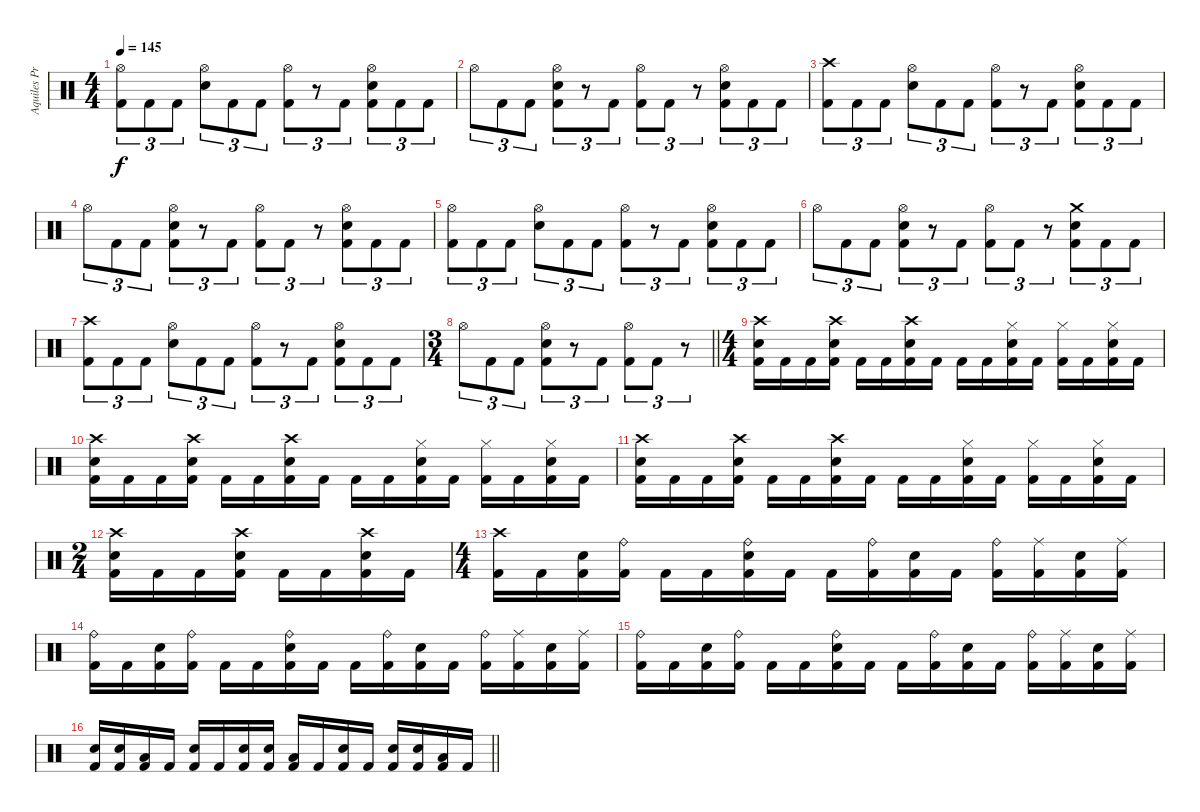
\track ("Aquiles Priester" "Aquiles Pr") {instrument percussion}
\staff {score}
\articulation defaults
\ts (4 4)
\tempo 145
\clef neutral
\ks c
("Hi-Hat (open)" "Kick (hit) 2").8{tu (3 2) dy f} "Kick (hit) 2".8{tu (3 2)} "Kick (hit) 2".8{tu (3 2)} ("Hi-Hat (open)" "Electric Snare (hit)").8{tu (3 2)} "Kick (hit) 2".8{tu (3 2)} "Kick (hit) 2".8{tu (3 2)} ("Hi-Hat (open)" "Kick (hit) 2").8{tu (3 2)} r.8{tu (3 2)} "Kick (hit) 2".8{tu (3 2)} ("Hi-Hat (open)" "Electric Snare (hit)" "Kick (hit) 2").8{tu (3 2)} "Kick (hit) 2".8{tu (3 2)} "Kick (hit) 2".8{tu (3 2)} |
"Hi-Hat (open)".8{tu (3 2)} "Kick (hit) 2".8{tu (3 2)} "Kick (hit) 2".8{tu (3 2)} ("Hi-Hat (open)" "Electric Snare (hit)" "Kick (hit) 2").8{tu (3 2)} r.8{tu (3 2)} "Kick (hit) 2".8{tu (3 2)} ("Hi-Hat (open)" "Kick (hit) 2").8{tu (3 2)} "Kick (hit) 2".8{tu (3 2)} r.8{tu (3 2)} ("Hi-Hat (open)" "Electric Snare (hit)" "Kick (hit) 2").8{tu (3 2)} "Kick (hit) 2".8{tu (3 2)} "Kick (hit) 2".8{tu (3 2)} |
("Crash high (hit)" "Kick (hit) 2").8{tu (3 2)} "Kick (hit) 2".8{tu (3 2)} "Kick (hit) 2".8{tu (3 2)} ("Hi-Hat (open)" "Electric Snare (hit)").8{tu (3 2)} "Kick (hit) 2".8{tu (3 2)} "Kick (hit) 2".8{tu (3 2)} ("Hi-Hat (open)" "Kick (hit) 2").8{tu (3 2)} r.8{tu (3 2)} "Kick (hit) 2".8{tu (3 2)} ("Hi-Hat (open)" "Electric Snare (hit)" "Kick (hit) 2").8{tu (3 2)} "Kick (hit) 2".8{tu (3 2)} "Kick (hit) 2".8{tu (3 2)} |
"Hi-Hat (open)".8{tu (3 2)} "Kick (hit) 2".8{tu (3 2)} "Kick (hit) 2".8{tu (3 2)} ("Hi-Hat (open)" "Electric Snare (hit)" "Kick (hit) 2").8{tu (3 2)} r.8{tu (3 2)} "Kick (hit) 2".8{tu (3 2)} ("Hi-Hat (open)" "Kick (hit) 2").8{tu (3 2)} "Kick (hit) 2".8{tu (3 2)} r.8{tu (3 2)} ("Hi-Hat (open)" "Electric Snare (hit)" "Kick (hit) 2").8{tu (3 2)} "Kick (hit) 2".8{tu (3 2)} "Kick (hit) 2".8{tu (3 2)} |
("Hi-Hat (open)" "Kick (hit) 2").8{tu (3 2)} "Kick (hit) 2".8{tu (3 2)} "Kick (hit) 2".8{tu (3 2)} ("Hi-Hat (open)" "Electric Snare (hit)").8{tu (3 2)} "Kick (hit) 2".8{tu (3 2)} "Kick (hit) 2".8{tu (3 2)} ("Hi-Hat (open)" "Kick (hit) 2").8{tu (3 2)} r.8{tu (3 2)} "Kick (hit) 2".8{tu (3 2)} ("Hi-Hat (open)" "Electric Snare (hit)" "Kick (hit) 2").8{tu (3 2)} "Kick (hit) 2".8{tu (3 2)} "Kick (hit) 2".8{tu (3 2)} |
"Hi-Hat (open)".8{tu (3 2)} "Kick (hit) 2".8{tu (3 2)} "Kick (hit) 2".8{tu (3 2)} ("Hi-Hat (open)" "Electric Snare (hit)" "Kick (hit) 2").8{tu (3 2)} r.8{tu (3 2)} "Kick (hit) 2".8{tu (3 2)} ("Hi-Hat (open)" "Kick (hit) 2").8{tu (3 2)} "Kick (hit) 2".8{tu (3 2)} r.8{tu (3 2)} ("Crash medium (hit)" "Electric Snare (hit)" "Kick (hit) 2").8{tu (3 2)} "Kick (hit) 2".8{tu (3 2)} "Kick (hit) 2".8{tu (3 2)} |
("Crash high (hit)" "Kick (hit) 2").8{tu (3 2)} "Kick (hit) 2".8{tu (3 2)} "Kick (hit) 2".8{tu (3 2)} ("Hi-Hat (open)" "Electric Snare (hit)").8{tu (3 2)} "Kick (hit) 2".8{tu (3 2)} "Kick (hit) 2".8{tu (3 2)} ("Hi-Hat (open)" "Kick (hit) 2").8{tu (3 2)} r.8{tu (3 2)} "Kick (hit) 2".8{tu (3 2)} ("Hi-Hat (open)" "Electric Snare (hit)" "Kick (hit) 2").8{tu (3 2)} "Kick (hit) 2".8{tu (3 2)} "Kick (hit) 2".8{tu (3 2)} |
\ts (3 4)
\barLineRight lightlight "Hi-Hat (open)".8{tu (3 2)} "Kick (hit) 2".8{tu (3 2)} "Kick (hit) 2".8{tu (3 2)}
("Hi-Hat (open)" "Electric Snare (hit)" "Kick (hit) 2").8{tu (3 2)} r.8{tu (3 2)} "Kick (hit) 2".8{tu (3 2)} ("Hi-Hat (open)" "Kick (hit) 2").8{tu (3 2)} "Kick (hit) 2".8{tu (3 2)} r.8{tu (3 2)} |
\ts (4 4)
("Crash high (hit)" "Electric Snare (hit)" "Kick (hit) 2").16 "Kick (hit) 2".16 "Kick (hit) 2".16 ("Crash high (hit)" "Electric Snare (hit)" "Kick (hit) 2").16 "Kick (hit) 2".16 "Kick (hit) 2".16 ("Crash high (hit)" "Electric Snare (hit)" "Kick (hit) 2").16 "Kick (hit) 2".16 "Kick (hit) 2".16 "Kick (hit) 2".16 ("Hi-Hat (closed)" "Electric Snare (hit)" "Kick (hit) 2").16 "Kick (hit) 2".16 ("Hi-Hat (closed)" "Kick (hit) 2").16 "Kick (hit) 2".16 ("Hi-Hat (closed)" "Electric Snare (hit)" "Kick (hit) 2").16 "Kick (hit) 2".16 |
("Crash high (hit)" "Electric Snare (hit)" "Kick (hit) 2").16 "Kick (hit) 2".16 "Kick (hit) 2".16 ("Crash high (hit)" "Electric Snare (hit)" "Kick (hit) 2").16 "Kick (hit) 2".16 "Kick (hit) 2".16 ("Crash high (hit)" "Electric Snare (hit)" "Kick (hit) 2").16 "Kick (hit) 2".16 "Kick (hit) 2".16 "Kick (hit) 2".16 ("Hi-Hat (closed)" "Electric Snare (hit)" "Kick (hit) 2").16 "Kick (hit) 2".16 ("Hi-Hat (closed)" "Kick (hit) 2").16 "Kick (hit) 2".16 ("Hi-Hat (closed)" "Electric Snare (hit)" "Kick (hit) 2").16 "Kick (hit) 2".16 |
("Crash high (hit)" "Electric Snare (hit)" "Kick (hit) 2").16 "Kick (hit) 2".16 "Kick (hit) 2".16 ("Crash high (hit)" "Electric Snare (hit)" "Kick (hit) 2").16 "Kick (hit) 2".16 "Kick (hit) 2".16 ("Crash high (hit)" "Electric Snare (hit)" "Kick (hit) 2").16 "Kick (hit) 2".16 "Kick (hit) 2".16 "Kick (hit) 2".16 ("Hi-Hat (closed)" "Electric Snare (hit)" "Kick (hit) 2").16 "Kick (hit) 2".16 ("Hi-Hat (closed)" "Kick (hit) 2").16 "Kick (hit) 2".16 ("Hi-Hat (closed)" "Electric Snare (hit)" "Kick (hit) 2").16 "Kick (hit) 2".16 |
\ts (2 4)
("Crash high (hit)" "Electric Snare (hit)" "Kick (hit) 2").16 "Kick (hit) 2".16 "Kick (hit) 2".16 ("Crash high (hit)" "Electric Snare (hit)" "Kick (hit) 2").16 "Kick (hit) 2".16 "Kick (hit) 2".16 ("Crash high (hit)" "Electric Snare (hit)" "Kick (hit) 2").16 "Kick (hit) 2".16 |
\ts (4 4)
("Crash high (hit)" "Kick (hit) 2").16 "Kick (hit) 2".16 ("Electric Snare (hit)" "Kick (hit) 2").16 ("Ride (bell)" "Kick (hit) 2").16 "Kick (hit) 2".16 "Kick (hit) 2".16 ("Ride (bell)" "Electric Snare (hit)" "Kick (hit) 2").16 "Kick (hit) 2".16 "Kick (hit) 2".16 ("Ride (bell)" "Kick (hit) 2").16 ("Electric Snare (hit)" "Kick (hit) 2").16 "Kick (hit) 2".16 ("Ride (bell)" "Kick (hit) 2").16 ("Ride (middle)" "Kick (hit) 2").16 ("Electric Snare (hit)" "Kick (hit) 2").16 ("Ride (middle)" "Kick (hit) 2").16 |
("Ride (bell)" "Kick (hit) 2").16 "Kick (hit) 2".16 ("Electric Snare (hit)" "Kick (hit) 2").16 ("Ride (bell)" "Kick (hit) 2").16 "Kick (hit) 2".16 "Kick (hit) 2".16 ("Ride (bell)" "Electric Snare (hit)" "Kick (hit) 2").16 "Kick (hit) 2".16 "Kick (hit) 2".16 ("Ride (bell)" "Kick (hit) 2").16 ("Electric Snare (hit)" "Kick (hit) 2").16 "Kick (hit) 2".16 ("Ride (bell)" "Kick (hit) 2").16 ("Ride (middle)" "Kick (hit) 2").16 ("Electric Snare (hit)" "Kick (hit) 2").16 ("Ride (middle)" "Kick (hit) 2").16 |
("Ride (bell)" "Kick (hit) 2").16 "Kick (hit) 2".16 ("Electric Snare (hit)" "Kick (hit) 2").16 ("Ride (bell)" "Kick (hit) 2").16 "Kick (hit) 2".16 "Kick (hit) 2".16 ("Ride (bell)" "Electric Snare (hit)" "Kick (hit) 2").16 "Kick (hit) 2".16 "Kick (hit) 2".16 ("Ride (bell)" "Kick (hit) 2").16 ("Electric Snare (hit)" "Kick (hit) 2").16 "Kick (hit) 2".16 ("Ride (bell)" "Kick (hit) 2").16 ("Ride (middle)" "Kick (hit) 2").16 ("Electric Snare (hit)" "Kick (hit) 2").16 ("Ride (middle)" "Kick (hit) 2").16 |
\barLineRight lightlight
("Electric Snare (hit)" "Kick (hit) 2").16 ("Electric Snare (hit)" "Kick (hit) 2").16 ("Low Tom (hit)" "Kick (hit) 2").16 "Kick (hit) 2".16 ("Electric Snare (hit)" "Kick (hit) 2").16 "Kick (hit) 2".16 ("Electric Snare (hit)" "Kick (hit) 2").16 ("Electric Snare (hit)" "Kick (hit) 2").16 ("Low Tom (hit)" "Kick (hit) 2").16 "Kick (hit) 2".16 ("Electric Snare (hit)" "Kick (hit) 2").16 "Kick (hit) 2".16 ("Electric Snare (hit)" "Kick (hit) 2").16 ("Electric Snare (hit)" "Kick (hit) 2").16 ("Low Tom (hit)" "Kick (hit) 2").16 "Kick (hit) 2".16
